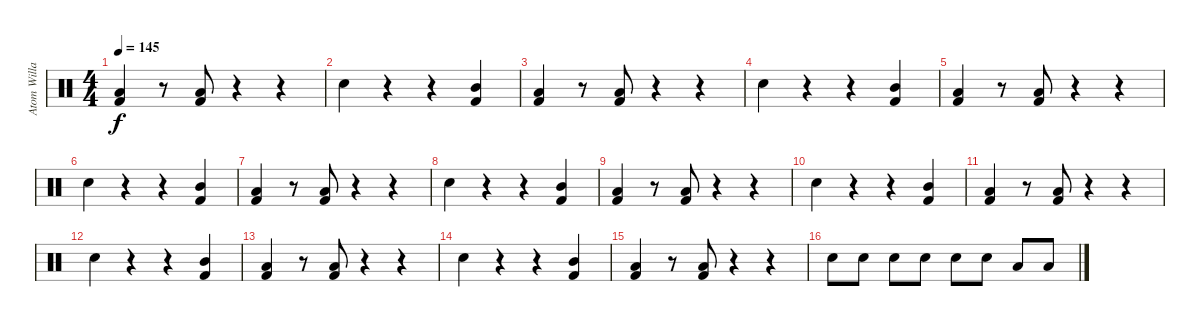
\track ("Atom Willard (Drums)" "Atom Willa") {instrument percussion}
\staff {score}
\articulation defaults
\ts (4 4)
\tempo 145
\clef neutral
\ks c
("Low Tom (hit)" "Kick (hit) 2").4{dy f} r.8 ("Low Tom (hit)" "Kick (hit) 2").8 r.4 r.4 |
"Electric Snare (hit)".4 r.4 r.4 ("Mid Tom (hit)" "Kick (hit) 2").4 |
("Low Tom (hit)" "Kick (hit) 2").4 r.8 ("Low Tom (hit)" "Kick (hit) 2").8 r.4 r.4 |
"Electric Snare (hit)".4 r.4 r.4 ("Mid Tom (hit)" "Kick (hit) 2").4 |
("Low Tom (hit)" "Kick (hit) 2").4 r.8 ("Low Tom (hit)" "Kick (hit) 2").8 r.4 r.4 |
"Electric Snare (hit)".4 r.4 r.4 ("Mid Tom (hit)" "Kick (hit) 2").4 |
("Low Tom (hit)" "Kick (hit) 2").4 r.8 ("Low Tom (hit)" "Kick (hit) 2").8 r.4 r.4 |
"Electric Snare (hit)".4 r.4 r.4 ("Mid Tom (hit)" "Kick (hit) 2").4 |
("Low Tom (hit)" "Kick (hit) 2").4 r.8 ("Low Tom (hit)" "Kick (hit) 2").8 r.4 r.4 |
"Electric Snare (hit)".4 r.4 r.4 ("Mid Tom (hit)" "Kick (hit) 2").4 |
("Low Tom (hit)" "Kick (hit) 2").4 r.8 ("Low Tom (hit)" "Kick (hit) 2").8 r.4 r.4 |
"Electric Snare (hit)".4 r.4 r.4 ("Mid Tom (hit)" "Kick (hit) 2").4 |
("Low Tom (hit)" "Kick (hit) 2").4 r.8 ("Low Tom (hit)" "Kick (hit) 2").8 r.4 r.4 |
"Electric Snare (hit)".4 r.4 r.4 ("Mid Tom (hit)" "Kick (hit) 2").4 |
("Low Tom (hit)" "Kick (hit) 2").4 r.8 ("Low Tom (hit)" "Kick (hit) 2").8 r.4 r.4 |
"Electric Snare (hit)".8 "Snare (hit)".8 "Snare (hit)".8 "Snare (hit)".8 "Snare (hit)".8 "Snare (hit)".8 "Low Tom (hit)".8 "Low Tom (hit)".8
